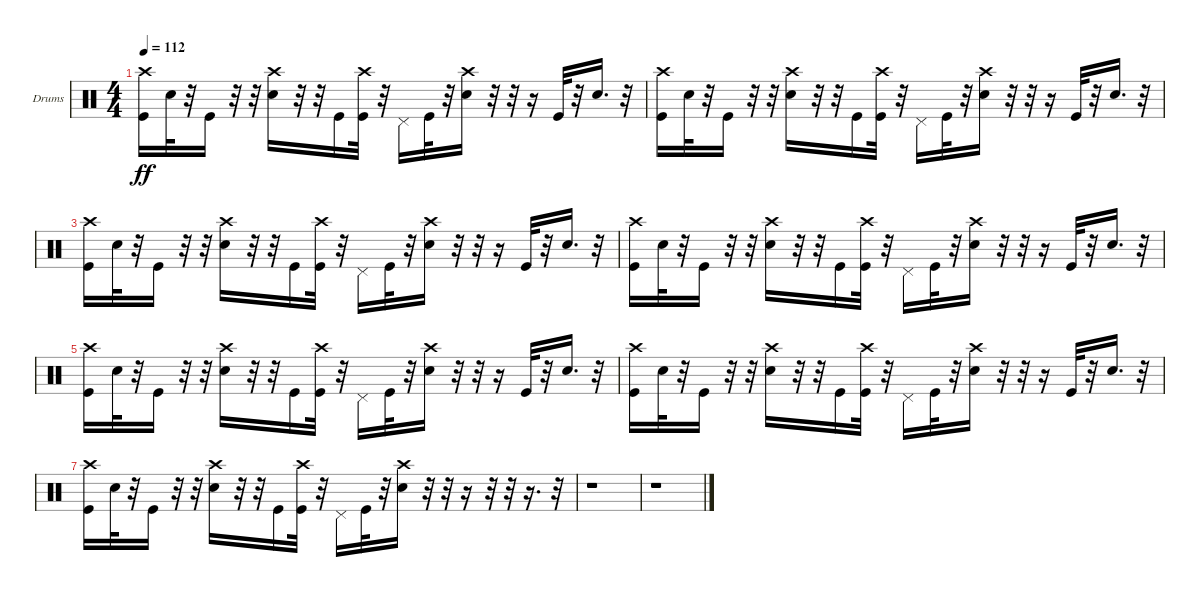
\bracketExtendMode nobrackets
\firstSystemTrackNameOrientation horizontal
\otherSystemsTrackNameOrientation horizontal
\defaultBarNumberDisplay FirstOfSystem
\track ("Drumkit" "Drums") {instrument percussion}
\staff {score}
\articulation defaults
\ts (4 4)
\tempo 112
\clef neutral
\ks c
("Crash high (hit)" "Kick (hit)").16{dy ff} "Snare (hit) 2".32 r.32 "Kick (hit)".16 r.32 r.32 ("Snare (hit) 2" "Crash high (hit)").16 r.32 r.32 "Kick (hit)".16 ("Kick (hit)" "Crash high (hit)").32 r.32 "Pedal Hi-Hat (hit)".16 "Kick (hit)".32 r.32 ("Snare (hit) 2" "Crash high (hit)").16 r.32 r.32 r.16 "Kick (hit)".32 r.32 "Snare (hit) 2".16{d} r.32 |
("Crash high (hit)" "Kick (hit)").16 "Snare (hit) 2".32 r.32 "Kick (hit)".16 r.32 r.32 ("Snare (hit) 2" "Crash high (hit)").16 r.32 r.32 "Kick (hit)".16 ("Kick (hit)" "Crash high (hit)").32 r.32 "Pedal Hi-Hat (hit)".16 "Kick (hit)".32 r.32 ("Snare (hit) 2" "Crash high (hit)").16 r.32 r.32 r.16 "Kick (hit)".32 r.32 "Snare (hit) 2".16{d} r.32 |
("Crash high (hit)" "Kick (hit)").16 "Snare (hit) 2".32 r.32 "Kick (hit)".16 r.32 r.32 ("Snare (hit) 2" "Crash high (hit)").16 r.32 r.32 "Kick (hit)".16 ("Kick (hit)" "Crash high (hit)").32 r.32 "Pedal Hi-Hat (hit)".16 "Kick (hit)".32 r.32 ("Snare (hit) 2" "Crash high (hit)").16 r.32 r.32 r.16 "Kick (hit)".32 r.32 "Snare (hit) 2".16{d} r.32 |
("Crash high (hit)" "Kick (hit)").16 "Snare (hit) 2".32 r.32 "Kick (hit)".16 r.32 r.32 ("Snare (hit) 2" "Crash high (hit)").16 r.32 r.32 "Kick (hit)".16 ("Kick (hit)" "Crash high (hit)").32 r.32 "Pedal Hi-Hat (hit)".16 "Kick (hit)".32 r.32 ("Snare (hit) 2" "Crash high (hit)").16 r.32 r.32 r.16 "Kick (hit)".32 r.32 "Snare (hit) 2".16{d} r.32 |
("Crash high (hit)" "Kick (hit)").16 "Snare (hit) 2".32 r.32 "Kick (hit)".16 r.32 r.32 ("Snare (hit) 2" "Crash high (hit)").16 r.32 r.32 "Kick (hit)".16 ("Kick (hit)" "Crash high (hit)").32 r.32 "Pedal Hi-Hat (hit)".16 "Kick (hit)".32 r.32 ("Snare (hit) 2" "Crash high (hit)").16 r.32 r.32 r.16 "Kick (hit)".32 r.32 "Snare (hit) 2".16{d} r.32 |
("Crash high (hit)" "Kick (hit)").16 "Snare (hit) 2".32 r.32 "Kick (hit)".16 r.32 r.32 ("Snare (hit) 2" "Crash high (hit)").16 r.32 r.32 "Kick (hit)".16 ("Kick (hit)" "Crash high (hit)").32 r.32 "Pedal Hi-Hat (hit)".16 "Kick (hit)".32 r.32 ("Snare (hit) 2" "Crash high (hit)").16 r.32 r.32 r.16 "Kick (hit)".32 r.32 "Snare (hit) 2".16{d} r.32 |
("Crash high (hit)" "Kick (hit)").16 "Snare (hit) 2".32 r.32 "Kick (hit)".16 r.32 r.32 ("Snare (hit) 2" "Crash high (hit)").16 r.32 r.32 "Kick (hit)".16 ("Kick (hit)" "Crash high (hit)").32 r.32 "Pedal Hi-Hat (hit)".16 "Kick (hit)".32 r.32 ("Snare (hit) 2" "Crash high (hit)").16 r.32 r.32 r.16 r.32 r.32 r.16{d} r.32 |
r.1 |
r.1
